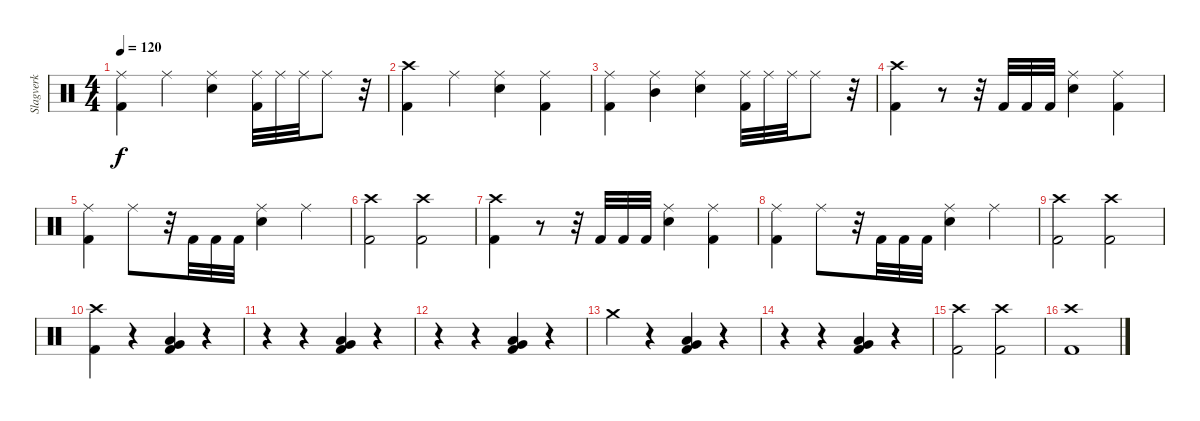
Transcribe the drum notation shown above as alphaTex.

\track ("Slagverk" "Slagverk") {instrument percussion}
\staff {score}
\articulation defaults
\ts (4 4)
\tempo 120
\clef neutral
\ks c
("Ride (middle)" "Kick (hit) 2").4{dy f} "Ride (middle)".4 ("Ride (middle)" "Electric Snare (hit)").4 ("Ride (middle)" "Kick (hit) 2").32 "Ride (middle)".32 "Ride (middle)".32 "Ride (middle)".8 r.32 |
("Crash high (hit)" "Kick (hit) 2").4 "Ride (middle)".4 ("Ride (middle)" "Electric Snare (hit)").4 ("Ride (middle)" "Kick (hit) 2").4 |
("Ride (middle)" "Kick (hit) 2").4 ("Ride (middle)" "Mid Tom (hit)").4 ("Ride (middle)" "Electric Snare (hit)").4 ("Ride (middle)" "Kick (hit) 2").32 "Ride (middle)".32 "Ride (middle)".32 "Ride (middle)".8 r.32 |
("Crash high (hit)" "Kick (hit) 2").4 r.8 r.32 "Kick (hit) 2".32 "Kick (hit) 2".32 "Kick (hit) 2".32 ("Ride (middle)" "Electric Snare (hit)").4 ("Ride (middle)" "Kick (hit) 2").4 |
("Ride (middle)" "Kick (hit) 2").4 "Ride (middle)".8 r.32 "Kick (hit) 2".32 "Kick (hit) 2".32 "Kick (hit) 2".32 ("Ride (middle)" "Electric Snare (hit)").4 "Ride (middle)".4 |
("Crash high (hit)" "Kick (hit) 2").2 ("Crash high (hit)" "Kick (hit) 2").2 |
("Crash high (hit)" "Kick (hit) 2").4 r.8 r.32 "Kick (hit) 2".32 "Kick (hit) 2".32 "Kick (hit) 2".32 ("Ride (middle)" "Electric Snare (hit)").4 ("Ride (middle)" "Kick (hit) 2").4 |
("Ride (middle)" "Kick (hit) 2").4 "Ride (middle)".8 r.32 "Kick (hit) 2".32 "Kick (hit) 2".32 "Kick (hit) 2".32 ("Ride (middle)" "Electric Snare (hit)").4 "Ride (middle)".4 |
("Crash high (hit)" "Kick (hit) 2").2 ("Crash high (hit)" "Kick (hit) 2").2 |
("Crash high (hit)" "Kick (hit) 2").4 r.4 ("Very Low Tom (hit)" "Low Floor Tom (hit)" "Kick (hit) 2").4 r.4 |
r.4 r.4 ("Very Low Tom (hit)" "Low Floor Tom (hit)" "Kick (hit) 2").4 r.4 |
r.4 r.4 ("Very Low Tom (hit)" "Low Floor Tom (hit)" "Kick (hit) 2").4 r.4 |
"Crash medium (hit)".4 r.4 ("Very Low Tom (hit)" "Low Floor Tom (hit)" "Kick (hit) 2").4 r.4 |
r.4 r.4 ("Very Low Tom (hit)" "Low Floor Tom (hit)" "Kick (hit) 2").4 r.4 |
("Crash high (hit)" "Kick (hit) 2").2 ("Crash high (hit)" "Kick (hit) 2").2 |
("Crash high (hit)" "Kick (hit) 2").1
